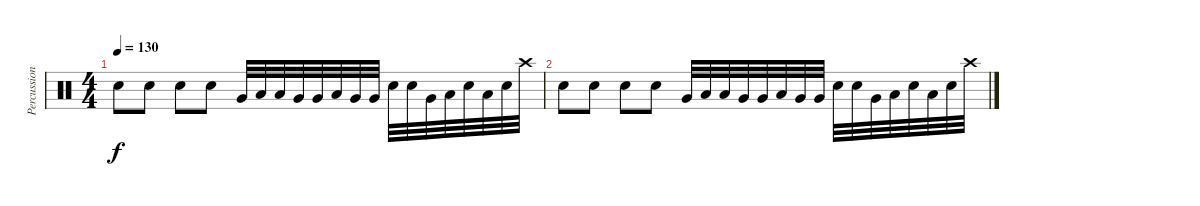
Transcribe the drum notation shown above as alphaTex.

\track ("Percussion" "Percussion") {instrument percussion}
\staff {score}
\articulation defaults
\ts (4 4)
\tempo 130
\clef neutral
\ks c "Electric Snare (hit)".8{dy f} "Electric Snare (hit)".8 "Electric Snare (hit)".8 "Electric Snare (hit)".8 "Very Low Tom (hit)".32 "Low Floor Tom (hit)".32 "Low Floor Tom (hit)".32 "Very Low Tom (hit)".32 "Very Low Tom (hit)".32 "Low Floor Tom (hit)".32 "Very Low Tom (hit)".32 "Very Low Tom (hit)".32 "Snare (hit) 2".32 "Snare (hit) 2".32 "Very Low Tom (hit)".32 "Low Floor Tom (hit)".32 "Snare (hit) 2".32 "Low Floor Tom (hit)".32 "Snare (hit) 2".32 "Crash high (hit)".32
|
"Electric Snare (hit)".8 "Electric Snare (hit)".8 "Electric Snare (hit)".8 "Electric Snare (hit)".8 "Very Low Tom (hit)".32 "Low Floor Tom (hit)".32 "Low Floor Tom (hit)".32 "Very Low Tom (hit)".32 "Very Low Tom (hit)".32 "Low Floor Tom (hit)".32 "Very Low Tom (hit)".32 "Very Low Tom (hit)".32 "Snare (hit) 2".32 "Snare (hit) 2".32 "Very Low Tom (hit)".32 "Low Floor Tom (hit)".32 "Snare (hit) 2".32 "Low Floor Tom (hit)".32 "Snare (hit) 2".32 "Crash high (hit)".32
